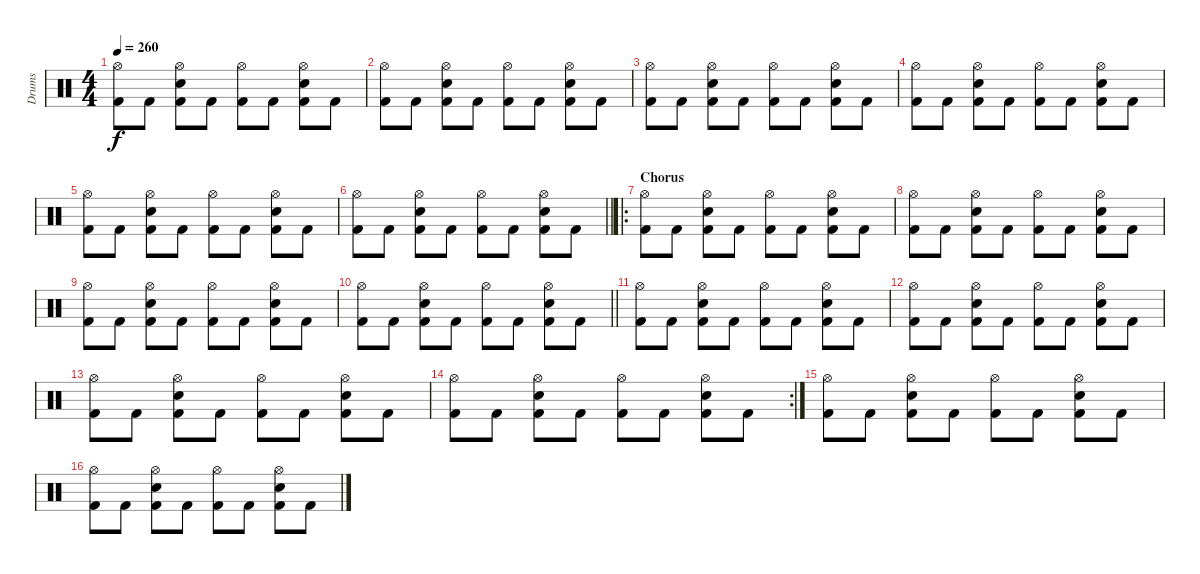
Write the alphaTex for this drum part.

\track ("Drums" "Drums") {instrument percussion}
\staff {score}
\articulation defaults
\ts (4 4)
\tempo 260
\clef neutral
\ks c
("Hi-Hat (open)" "Kick (hit) 2").8{dy f} "Kick (hit) 2".8 ("Hi-Hat (open)" "Snare (hit) 2" "Kick (hit) 2").8 "Kick (hit) 2".8 ("Hi-Hat (open)" "Kick (hit) 2").8 "Kick (hit) 2".8 ("Hi-Hat (open)" "Snare (hit) 2" "Kick (hit) 2").8 "Kick (hit) 2".8 |
("Hi-Hat (open)" "Kick (hit) 2").8 "Kick (hit) 2".8 ("Hi-Hat (open)" "Snare (hit) 2" "Kick (hit) 2").8 "Kick (hit) 2".8 ("Hi-Hat (open)" "Kick (hit) 2").8 "Kick (hit) 2".8 ("Hi-Hat (open)" "Snare (hit) 2" "Kick (hit) 2").8 "Kick (hit) 2".8 |
("Hi-Hat (open)" "Kick (hit) 2").8 "Kick (hit) 2".8 ("Hi-Hat (open)" "Snare (hit) 2" "Kick (hit) 2").8 "Kick (hit) 2".8 ("Hi-Hat (open)" "Kick (hit) 2").8 "Kick (hit) 2".8 ("Hi-Hat (open)" "Snare (hit) 2" "Kick (hit) 2").8 "Kick (hit) 2".8 |
("Hi-Hat (open)" "Kick (hit) 2").8 "Kick (hit) 2".8 ("Hi-Hat (open)" "Snare (hit) 2" "Kick (hit) 2").8 "Kick (hit) 2".8 ("Hi-Hat (open)" "Kick (hit) 2").8 "Kick (hit) 2".8 ("Hi-Hat (open)" "Snare (hit) 2" "Kick (hit) 2").8 "Kick (hit) 2".8 |
("Hi-Hat (open)" "Kick (hit) 2").8 "Kick (hit) 2".8 ("Hi-Hat (open)" "Snare (hit) 2" "Kick (hit) 2").8 "Kick (hit) 2".8 ("Hi-Hat (open)" "Kick (hit) 2").8 "Kick (hit) 2".8 ("Hi-Hat (open)" "Snare (hit) 2" "Kick (hit) 2").8 "Kick (hit) 2".8 |
\barLineRight lightlight
("Hi-Hat (open)" "Kick (hit) 2").8 "Kick (hit) 2".8 ("Hi-Hat (open)" "Snare (hit) 2" "Kick (hit) 2").8 "Kick (hit) 2".8 ("Hi-Hat (open)" "Kick (hit) 2").8 "Kick (hit) 2".8 ("Hi-Hat (open)" "Snare (hit) 2" "Kick (hit) 2").8 "Kick (hit) 2".8 |
\ro
\section ("" "Chorus")
("Hi-Hat (open)" "Kick (hit) 2").8 "Kick (hit) 2".8 ("Hi-Hat (open)" "Snare (hit) 2" "Kick (hit) 2").8 "Kick (hit) 2".8 ("Hi-Hat (open)" "Kick (hit) 2").8 "Kick (hit) 2".8 ("Hi-Hat (open)" "Snare (hit) 2" "Kick (hit) 2").8 "Kick (hit) 2".8 |
("Hi-Hat (open)" "Kick (hit) 2").8 "Kick (hit) 2".8 ("Hi-Hat (open)" "Snare (hit) 2" "Kick (hit) 2").8 "Kick (hit) 2".8 ("Hi-Hat (open)" "Kick (hit) 2").8 "Kick (hit) 2".8 ("Hi-Hat (open)" "Snare (hit) 2" "Kick (hit) 2").8 "Kick (hit) 2".8 |
("Hi-Hat (open)" "Kick (hit) 2").8 "Kick (hit) 2".8 ("Hi-Hat (open)" "Snare (hit) 2" "Kick (hit) 2").8 "Kick (hit) 2".8 ("Hi-Hat (open)" "Kick (hit) 2").8 "Kick (hit) 2".8 ("Hi-Hat (open)" "Snare (hit) 2" "Kick (hit) 2").8 "Kick (hit) 2".8 |
\barLineRight lightlight
("Hi-Hat (open)" "Kick (hit) 2").8 "Kick (hit) 2".8 ("Hi-Hat (open)" "Snare (hit) 2" "Kick (hit) 2").8 "Kick (hit) 2".8 ("Hi-Hat (open)" "Kick (hit) 2").8 "Kick (hit) 2".8 ("Hi-Hat (open)" "Snare (hit) 2" "Kick (hit) 2").8 "Kick (hit) 2".8 |
("Hi-Hat (open)" "Kick (hit) 2").8 "Kick (hit) 2".8 ("Hi-Hat (open)" "Snare (hit) 2" "Kick (hit) 2").8 "Kick (hit) 2".8 ("Hi-Hat (open)" "Kick (hit) 2").8 "Kick (hit) 2".8 ("Hi-Hat (open)" "Snare (hit) 2" "Kick (hit) 2").8 "Kick (hit) 2".8 |
("Hi-Hat (open)" "Kick (hit) 2").8 "Kick (hit) 2".8 ("Hi-Hat (open)" "Snare (hit) 2" "Kick (hit) 2").8 "Kick (hit) 2".8 ("Hi-Hat (open)" "Kick (hit) 2").8 "Kick (hit) 2".8 ("Hi-Hat (open)" "Snare (hit) 2" "Kick (hit) 2").8 "Kick (hit) 2".8 |
("Hi-Hat (open)" "Kick (hit) 2").8 "Kick (hit) 2".8 ("Hi-Hat (open)" "Snare (hit) 2" "Kick (hit) 2").8 "Kick (hit) 2".8 ("Hi-Hat (open)" "Kick (hit) 2").8 "Kick (hit) 2".8 ("Hi-Hat (open)" "Snare (hit) 2" "Kick (hit) 2").8 "Kick (hit) 2".8 |
\rc 2
("Hi-Hat (open)" "Kick (hit) 2").8 "Kick (hit) 2".8 ("Hi-Hat (open)" "Snare (hit) 2" "Kick (hit) 2").8 "Kick (hit) 2".8 ("Hi-Hat (open)" "Kick (hit) 2").8 "Kick (hit) 2".8 ("Hi-Hat (open)" "Snare (hit) 2" "Kick (hit) 2").8 "Kick (hit) 2".8 |
("Hi-Hat (open)" "Kick (hit) 2").8 "Kick (hit) 2".8 ("Hi-Hat (open)" "Snare (hit) 2" "Kick (hit) 2").8 "Kick (hit) 2".8 ("Hi-Hat (open)" "Kick (hit) 2").8 "Kick (hit) 2".8 ("Hi-Hat (open)" "Snare (hit) 2" "Kick (hit) 2").8 "Kick (hit) 2".8 |
("Hi-Hat (open)" "Kick (hit) 2").8 "Kick (hit) 2".8 ("Hi-Hat (open)" "Snare (hit) 2" "Kick (hit) 2").8 "Kick (hit) 2".8 ("Hi-Hat (open)" "Kick (hit) 2").8 "Kick (hit) 2".8 ("Hi-Hat (open)" "Snare (hit) 2" "Kick (hit) 2").8 "Kick (hit) 2".8
